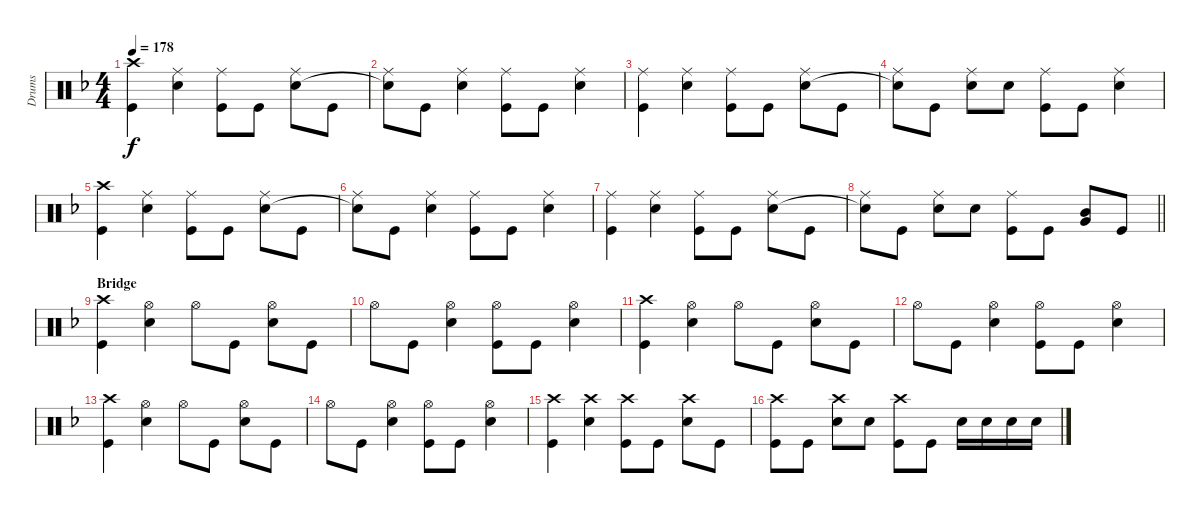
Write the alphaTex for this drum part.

\track ("Drums" "Drums") {instrument percussion}
\staff {score}
\articulation defaults
\ts (4 4)
\tempo 178
\clef neutral
\ks f
("Crash high (hit)" "Kick (hit)").4{dy f} ("Ride (middle)" "Electric Snare (hit)").4 ("Ride (middle)" "Kick (hit)").8 "Kick (hit)".8 ("Ride (middle)" "Electric Snare (hit)").8 "Kick (hit)".8 |
("Ride (middle)" "Snare (hit)"{t}).8 "Kick (hit)".8 ("Ride (middle)" "Electric Snare (hit)").4 ("Ride (middle)" "Kick (hit)").8 "Kick (hit)".8 ("Ride (middle)" "Electric Snare (hit)").4 |
("Ride (middle)" "Kick (hit)").4 ("Ride (middle)" "Electric Snare (hit)").4 ("Ride (middle)" "Kick (hit)").8 "Kick (hit)".8 ("Ride (middle)" "Electric Snare (hit)").8 "Kick (hit)".8 |
("Ride (middle)" "Snare (hit)"{t}).8 "Kick (hit)".8 ("Ride (middle)" "Electric Snare (hit)").8 "Electric Snare (hit)".8 ("Ride (middle)" "Kick (hit)").8 "Kick (hit)".8 ("Ride (middle)" "Electric Snare (hit)").4 |
("Crash high (hit)" "Kick (hit)").4 ("Ride (middle)" "Electric Snare (hit)").4 ("Ride (middle)" "Kick (hit)").8 "Kick (hit)".8 ("Ride (middle)" "Electric Snare (hit)").8 "Kick (hit)".8 |
("Ride (middle)" "Snare (hit)"{t}).8 "Kick (hit)".8 ("Ride (middle)" "Electric Snare (hit)").4 ("Ride (middle)" "Kick (hit)").8 "Kick (hit)".8 ("Ride (middle)" "Electric Snare (hit)").4 |
("Ride (middle)" "Kick (hit)").4 ("Ride (middle)" "Electric Snare (hit)").4 ("Ride (middle)" "Kick (hit)").8 "Kick (hit)".8 ("Ride (middle)" "Electric Snare (hit)").8 "Kick (hit)".8 |
\barLineRight lightlight
("Ride (middle)" "Snare (hit)"{t}).8 "Kick (hit)".8 ("Ride (middle)" "Electric Snare (hit)").8 "Electric Snare (hit)".8 ("Ride (middle)" "Kick (hit)").8 "Kick (hit)".8 ("Mid Tom (hit)" "Very Low Tom (hit)").8 "Kick (hit)".8 |
\section ("" "Bridge")
("Crash high (hit)" "Kick (hit)").4 ("Hi-Hat (open)" "Electric Snare (hit)").4 "Hi-Hat (open)".8 "Kick (hit)".8 ("Hi-Hat (open)" "Electric Snare (hit)").8 "Kick (hit)".8 |
"Hi-Hat (open)".8 "Kick (hit)".8 ("Hi-Hat (open)" "Electric Snare (hit)").4 ("Hi-Hat (open)" "Kick (hit)").8 "Kick (hit)".8 ("Hi-Hat (open)" "Electric Snare (hit)").4 |
("Crash high (hit)" "Kick (hit)").4 ("Hi-Hat (open)" "Electric Snare (hit)").4 "Hi-Hat (open)".8 "Kick (hit)".8 ("Hi-Hat (open)" "Electric Snare (hit)").8 "Kick (hit)".8 |
"Hi-Hat (open)".8 "Kick (hit)".8 ("Hi-Hat (open)" "Electric Snare (hit)").4 ("Hi-Hat (open)" "Kick (hit)").8 "Kick (hit)".8 ("Hi-Hat (open)" "Electric Snare (hit)").4 |
("Crash high (hit)" "Kick (hit)").4 ("Hi-Hat (open)" "Electric Snare (hit)").4 "Hi-Hat (open)".8 "Kick (hit)".8 ("Hi-Hat (open)" "Electric Snare (hit)").8 "Kick (hit)".8 |
"Hi-Hat (open)".8 "Kick (hit)".8 ("Hi-Hat (open)" "Electric Snare (hit)").4 ("Hi-Hat (open)" "Kick (hit)").8 "Kick (hit)".8 ("Hi-Hat (open)" "Electric Snare (hit)").4 |
("Crash high (hit)" "Kick (hit)").4 ("Crash high (hit)" "Electric Snare (hit)").4 ("Crash high (hit)" "Kick (hit)").8 "Kick (hit)".8 ("Crash high (hit)" "Electric Snare (hit)").8 "Kick (hit)".8 |
("Crash high (hit)" "Kick (hit)").8 "Kick (hit)".8 ("Crash high (hit)" "Electric Snare (hit)").8 "Electric Snare (hit)".8 ("Crash high (hit)" "Kick (hit)").8 "Kick (hit)".8 "Electric Snare (hit)".16 "Electric Snare (hit)".16 "Electric Snare (hit)".16 "Electric Snare (hit)".16
